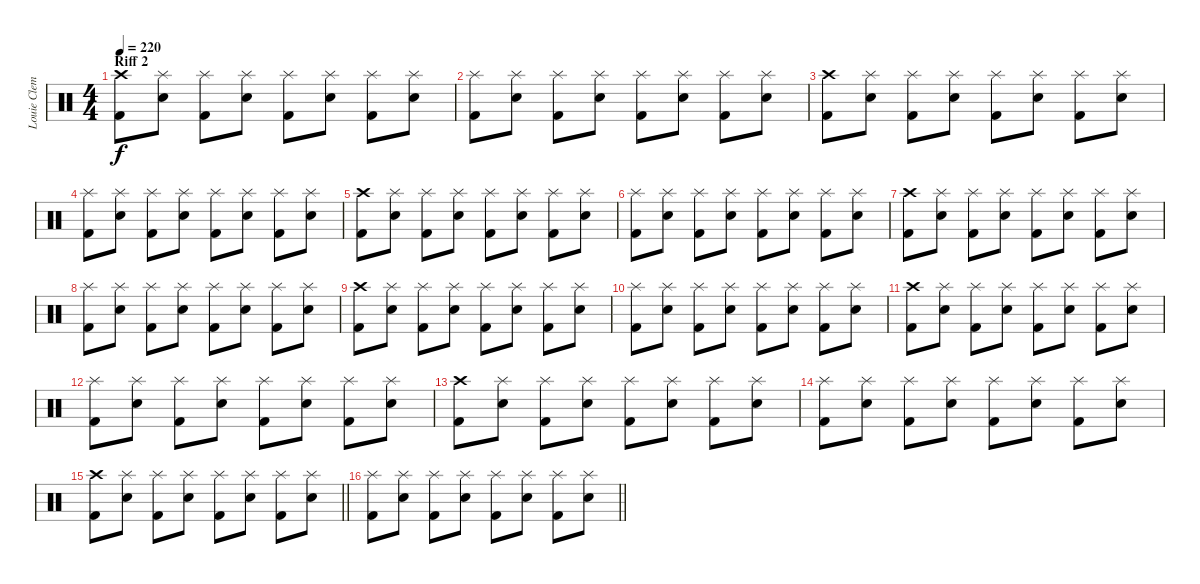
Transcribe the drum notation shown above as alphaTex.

\track ("Louie Clemente (Drums)" "Louie Clem") {instrument percussion}
\staff {score}
\articulation defaults
\ts (4 4)
\section ("" "Riff 2")
\tempo 220
\clef neutral
\ks c
("Crash high (hit)" "Kick (hit) 2").8{dy f} ("Splash (hit)" "Electric Snare (hit)").8 ("Splash (hit)" "Kick (hit) 2").8 ("Splash (hit)" "Electric Snare (hit)").8 ("Splash (hit)" "Kick (hit) 2").8 ("Splash (hit)" "Electric Snare (hit)").8 ("Splash (hit)" "Kick (hit) 2").8 ("Splash (hit)" "Electric Snare (hit)").8 |
("Splash (hit)" "Kick (hit) 2").8 ("Splash (hit)" "Electric Snare (hit)").8 ("Splash (hit)" "Kick (hit) 2").8 ("Splash (hit)" "Electric Snare (hit)").8 ("Splash (hit)" "Kick (hit) 2").8 ("Splash (hit)" "Electric Snare (hit)").8 ("Splash (hit)" "Kick (hit) 2").8 ("Splash (hit)" "Electric Snare (hit)").8 |
("Crash high (hit)" "Kick (hit) 2").8 ("Splash (hit)" "Electric Snare (hit)").8 ("Splash (hit)" "Kick (hit) 2").8 ("Splash (hit)" "Electric Snare (hit)").8 ("Splash (hit)" "Kick (hit) 2").8 ("Splash (hit)" "Electric Snare (hit)").8 ("Splash (hit)" "Kick (hit) 2").8 ("Splash (hit)" "Electric Snare (hit)").8 |
("Splash (hit)" "Kick (hit) 2").8 ("Splash (hit)" "Electric Snare (hit)").8 ("Splash (hit)" "Kick (hit) 2").8 ("Splash (hit)" "Electric Snare (hit)").8 ("Splash (hit)" "Kick (hit) 2").8 ("Splash (hit)" "Electric Snare (hit)").8 ("Splash (hit)" "Kick (hit) 2").8 ("Splash (hit)" "Electric Snare (hit)").8 |
("Crash high (hit)" "Kick (hit) 2").8 ("Splash (hit)" "Electric Snare (hit)").8 ("Splash (hit)" "Kick (hit) 2").8 ("Splash (hit)" "Electric Snare (hit)").8 ("Splash (hit)" "Kick (hit) 2").8 ("Splash (hit)" "Electric Snare (hit)").8 ("Splash (hit)" "Kick (hit) 2").8 ("Splash (hit)" "Electric Snare (hit)").8 |
("Splash (hit)" "Kick (hit) 2").8 ("Splash (hit)" "Electric Snare (hit)").8 ("Splash (hit)" "Kick (hit) 2").8 ("Splash (hit)" "Electric Snare (hit)").8 ("Splash (hit)" "Kick (hit) 2").8 ("Splash (hit)" "Electric Snare (hit)").8 ("Splash (hit)" "Kick (hit) 2").8 ("Splash (hit)" "Electric Snare (hit)").8 |
("Crash high (hit)" "Kick (hit) 2").8 ("Splash (hit)" "Electric Snare (hit)").8 ("Splash (hit)" "Kick (hit) 2").8 ("Splash (hit)" "Electric Snare (hit)").8 ("Splash (hit)" "Kick (hit) 2").8 ("Splash (hit)" "Electric Snare (hit)").8 ("Splash (hit)" "Kick (hit) 2").8 ("Splash (hit)" "Electric Snare (hit)").8 |
("Splash (hit)" "Kick (hit) 2").8 ("Splash (hit)" "Electric Snare (hit)").8 ("Splash (hit)" "Kick (hit) 2").8 ("Splash (hit)" "Electric Snare (hit)").8 ("Splash (hit)" "Kick (hit) 2").8 ("Splash (hit)" "Electric Snare (hit)").8 ("Splash (hit)" "Kick (hit) 2").8 ("Splash (hit)" "Electric Snare (hit)").8 |
("Crash high (hit)" "Kick (hit) 2").8 ("Splash (hit)" "Electric Snare (hit)").8 ("Splash (hit)" "Kick (hit) 2").8 ("Splash (hit)" "Electric Snare (hit)").8 ("Splash (hit)" "Kick (hit) 2").8 ("Splash (hit)" "Electric Snare (hit)").8 ("Splash (hit)" "Kick (hit) 2").8 ("Splash (hit)" "Electric Snare (hit)").8 |
("Splash (hit)" "Kick (hit) 2").8 ("Splash (hit)" "Electric Snare (hit)").8 ("Splash (hit)" "Kick (hit) 2").8 ("Splash (hit)" "Electric Snare (hit)").8 ("Splash (hit)" "Kick (hit) 2").8 ("Splash (hit)" "Electric Snare (hit)").8 ("Splash (hit)" "Kick (hit) 2").8 ("Splash (hit)" "Electric Snare (hit)").8 |
("Crash high (hit)" "Kick (hit) 2").8 ("Splash (hit)" "Electric Snare (hit)").8 ("Splash (hit)" "Kick (hit) 2").8 ("Splash (hit)" "Electric Snare (hit)").8 ("Splash (hit)" "Kick (hit) 2").8 ("Splash (hit)" "Electric Snare (hit)").8 ("Splash (hit)" "Kick (hit) 2").8 ("Splash (hit)" "Electric Snare (hit)").8 |
("Splash (hit)" "Kick (hit) 2").8 ("Splash (hit)" "Electric Snare (hit)").8 ("Splash (hit)" "Kick (hit) 2").8 ("Splash (hit)" "Electric Snare (hit)").8 ("Splash (hit)" "Kick (hit) 2").8 ("Splash (hit)" "Electric Snare (hit)").8 ("Splash (hit)" "Kick (hit) 2").8 ("Splash (hit)" "Electric Snare (hit)").8 |
("Crash high (hit)" "Kick (hit) 2").8 ("Splash (hit)" "Electric Snare (hit)").8 ("Splash (hit)" "Kick (hit) 2").8 ("Splash (hit)" "Electric Snare (hit)").8 ("Splash (hit)" "Kick (hit) 2").8 ("Splash (hit)" "Electric Snare (hit)").8 ("Splash (hit)" "Kick (hit) 2").8 ("Splash (hit)" "Electric Snare (hit)").8 |
("Splash (hit)" "Kick (hit) 2").8 ("Splash (hit)" "Electric Snare (hit)").8 ("Splash (hit)" "Kick (hit) 2").8 ("Splash (hit)" "Electric Snare (hit)").8 ("Splash (hit)" "Kick (hit) 2").8 ("Splash (hit)" "Electric Snare (hit)").8 ("Splash (hit)" "Kick (hit) 2").8 ("Splash (hit)" "Electric Snare (hit)").8 |
\barLineRight lightlight
("Crash high (hit)" "Kick (hit) 2").8 ("Splash (hit)" "Electric Snare (hit)").8 ("Splash (hit)" "Kick (hit) 2").8 ("Splash (hit)" "Electric Snare (hit)").8 ("Splash (hit)" "Kick (hit) 2").8 ("Splash (hit)" "Electric Snare (hit)").8 ("Splash (hit)" "Kick (hit) 2").8 ("Splash (hit)" "Electric Snare (hit)").8 |
\barLineRight lightlight
("Splash (hit)" "Kick (hit) 2").8 ("Splash (hit)" "Electric Snare (hit)").8 ("Splash (hit)" "Kick (hit) 2").8 ("Splash (hit)" "Electric Snare (hit)").8 ("Splash (hit)" "Kick (hit) 2").8 ("Splash (hit)" "Electric Snare (hit)").8 ("Splash (hit)" "Kick (hit) 2").8 ("Splash (hit)" "Electric Snare (hit)").8
